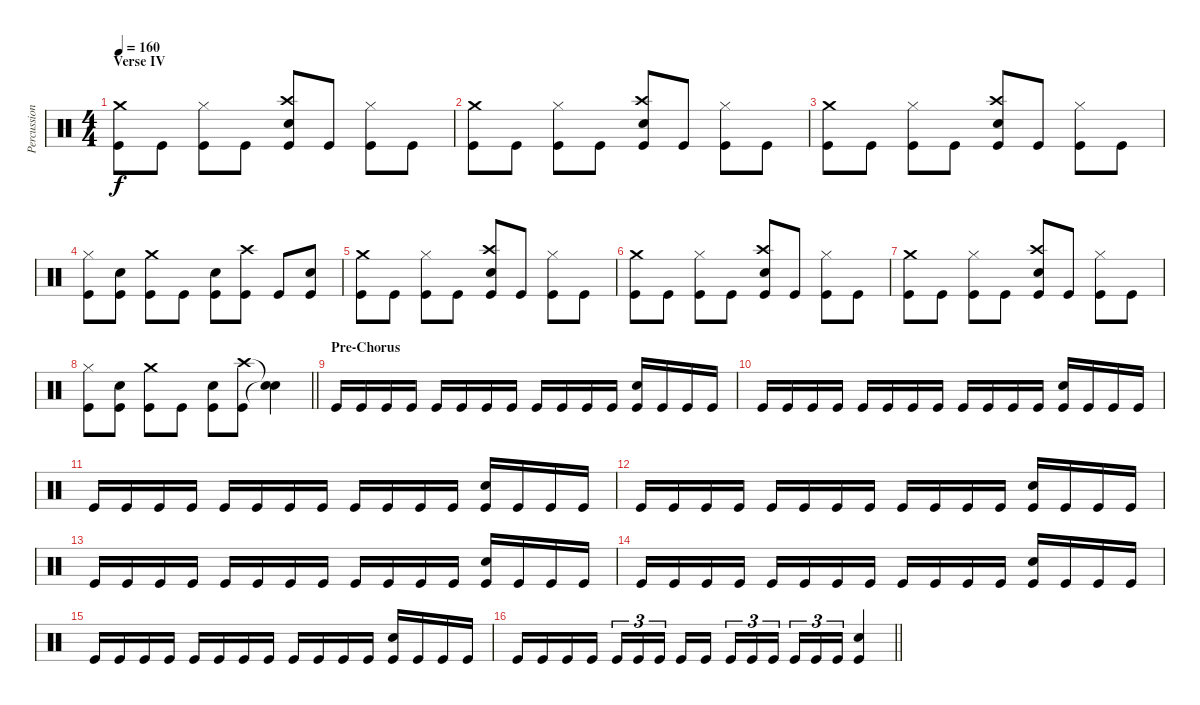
\track ("Percussion" "Percussion") {instrument percussion}
\staff {score}
\articulation defaults
\ts (4 4)
\section ("" "Verse IV")
\tempo 160
\clef neutral
\ks c
("Crash medium (hit)" "Kick (hit)").8{dy f} "Kick (hit)".8 ("Hi-Hat (closed)" "Kick (hit)").8 "Kick (hit)".8 ("Crash high (hit)" "Electric Snare (hit)" "Kick (hit)").8 "Kick (hit)".8 ("Hi-Hat (closed)" "Kick (hit)").8 "Kick (hit)".8 |
("Crash medium (hit)" "Kick (hit)").8 "Kick (hit)".8 ("Hi-Hat (closed)" "Kick (hit)").8 "Kick (hit)".8 ("Crash high (hit)" "Electric Snare (hit)" "Kick (hit)").8 "Kick (hit)".8 ("Hi-Hat (closed)" "Kick (hit)").8 "Kick (hit)".8 |
("Crash medium (hit)" "Kick (hit)").8 "Kick (hit)".8 ("Hi-Hat (closed)" "Kick (hit)").8 "Kick (hit)".8 ("Crash high (hit)" "Electric Snare (hit)" "Kick (hit)").8 "Kick (hit)".8 ("Hi-Hat (closed)" "Kick (hit)").8 "Kick (hit)".8 |
("Hi-Hat (closed)" "Kick (hit)").8 ("Electric Snare (hit)" "Kick (hit)").8 ("Crash medium (hit)" "Kick (hit)").8 "Kick (hit)".8 ("Electric Snare (hit)" "Kick (hit)").8 ("Crash high (hit)" "Kick (hit)").8 "Kick (hit)".8 ("Electric Snare (hit)" "Kick (hit)").8 |
("Crash medium (hit)" "Kick (hit)").8 "Kick (hit)".8 ("Hi-Hat (closed)" "Kick (hit)").8 "Kick (hit)".8 ("Crash high (hit)" "Electric Snare (hit)" "Kick (hit)").8 "Kick (hit)".8 ("Hi-Hat (closed)" "Kick (hit)").8 "Kick (hit)".8 |
("Crash medium (hit)" "Kick (hit)").8 "Kick (hit)".8 ("Hi-Hat (closed)" "Kick (hit)").8 "Kick (hit)".8 ("Crash high (hit)" "Electric Snare (hit)" "Kick (hit)").8 "Kick (hit)".8 ("Hi-Hat (closed)" "Kick (hit)").8 "Kick (hit)".8 |
("Crash medium (hit)" "Kick (hit)").8 "Kick (hit)".8 ("Hi-Hat (closed)" "Kick (hit)").8 "Kick (hit)".8 ("Crash high (hit)" "Electric Snare (hit)" "Kick (hit)").8 "Kick (hit)".8 ("Hi-Hat (closed)" "Kick (hit)").8 "Kick (hit)".8 |
\barLineRight lightlight
("Hi-Hat (closed)" "Kick (hit)").8 ("Electric Snare (hit)" "Kick (hit)").8 ("Crash medium (hit)" "Kick (hit)").8 "Kick (hit)".8 ("Electric Snare (hit)" "Kick (hit)").8 ("Crash high (hit)" "Kick (hit)").8 ("Snare (hit)"{t} "Snare (hit)"{t}).4 |
\section ("" "Pre-Chorus")
"Kick (hit)".16 "Kick (hit)".16 "Kick (hit)".16 "Kick (hit)".16 "Kick (hit)".16 "Kick (hit)".16 "Kick (hit)".16 "Kick (hit)".16 "Kick (hit)".16 "Kick (hit)".16 "Kick (hit)".16 "Kick (hit)".16 ("Electric Snare (hit)" "Kick (hit)").16 "Kick (hit)".16 "Kick (hit)".16 "Kick (hit)".16 |
"Kick (hit)".16 "Kick (hit)".16 "Kick (hit)".16 "Kick (hit)".16 "Kick (hit)".16 "Kick (hit)".16 "Kick (hit)".16 "Kick (hit)".16 "Kick (hit)".16 "Kick (hit)".16 "Kick (hit)".16 "Kick (hit)".16 ("Electric Snare (hit)" "Kick (hit)").16 "Kick (hit)".16 "Kick (hit)".16 "Kick (hit)".16 |
"Kick (hit)".16 "Kick (hit)".16 "Kick (hit)".16 "Kick (hit)".16 "Kick (hit)".16 "Kick (hit)".16 "Kick (hit)".16 "Kick (hit)".16 "Kick (hit)".16 "Kick (hit)".16 "Kick (hit)".16 "Kick (hit)".16 ("Electric Snare (hit)" "Kick (hit)").16 "Kick (hit)".16 "Kick (hit)".16 "Kick (hit)".16 |
"Kick (hit)".16 "Kick (hit)".16 "Kick (hit)".16 "Kick (hit)".16 "Kick (hit)".16 "Kick (hit)".16 "Kick (hit)".16 "Kick (hit)".16 "Kick (hit)".16 "Kick (hit)".16 "Kick (hit)".16 "Kick (hit)".16 ("Electric Snare (hit)" "Kick (hit)").16 "Kick (hit)".16 "Kick (hit)".16 "Kick (hit)".16 |
"Kick (hit)".16 "Kick (hit)".16 "Kick (hit)".16 "Kick (hit)".16 "Kick (hit)".16 "Kick (hit)".16 "Kick (hit)".16 "Kick (hit)".16 "Kick (hit)".16 "Kick (hit)".16 "Kick (hit)".16 "Kick (hit)".16 ("Electric Snare (hit)" "Kick (hit)").16 "Kick (hit)".16 "Kick (hit)".16 "Kick (hit)".16 |
"Kick (hit)".16 "Kick (hit)".16 "Kick (hit)".16 "Kick (hit)".16 "Kick (hit)".16 "Kick (hit)".16 "Kick (hit)".16 "Kick (hit)".16 "Kick (hit)".16 "Kick (hit)".16 "Kick (hit)".16 "Kick (hit)".16 ("Electric Snare (hit)" "Kick (hit)").16 "Kick (hit)".16 "Kick (hit)".16 "Kick (hit)".16 |
"Kick (hit)".16 "Kick (hit)".16 "Kick (hit)".16 "Kick (hit)".16 "Kick (hit)".16 "Kick (hit)".16 "Kick (hit)".16 "Kick (hit)".16 "Kick (hit)".16 "Kick (hit)".16 "Kick (hit)".16 "Kick (hit)".16 ("Electric Snare (hit)" "Kick (hit)").16 "Kick (hit)".16 "Kick (hit)".16 "Kick (hit)".16 |
\barLineRight lightlight "Kick (hit)".16 "Kick (hit)".16 "Kick (hit)".16 "Kick (hit)".16 "Kick (hit)".16{tu (3 2)} "Kick (hit)".16{tu (3 2)} "Kick (hit)".16{tu (3 2) beam splitsecondary} "Kick (hit)".16 "Kick (hit)".16 "Kick (hit)".16{tu (3 2)} "Kick (hit)".16{tu (3 2)} "Kick (hit)".16{tu (3 2) beam splitsecondary} "Kick (hit)".16{tu (3 2)} "Kick (hit)".16{tu (3 2)} "Kick (hit)".16{tu (3 2)}
("Electric Snare (hit)" "Kick (hit)").4
